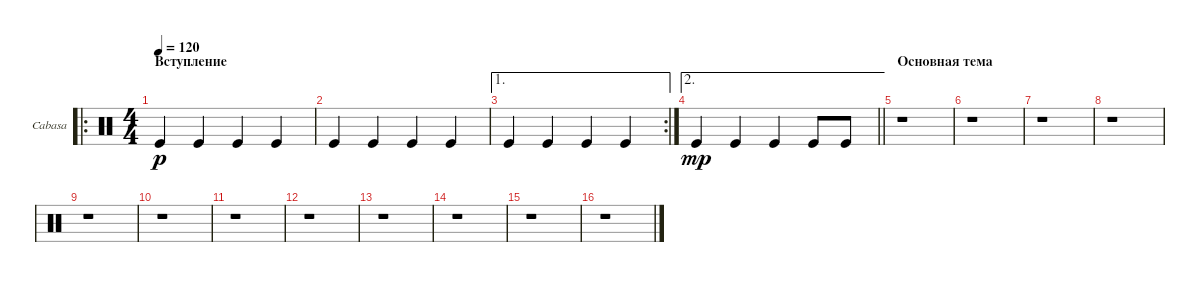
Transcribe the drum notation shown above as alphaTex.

\bracketExtendMode groupsimilarinstruments
\firstSystemTrackNameOrientation horizontal
\otherSystemsTrackNameOrientation horizontal
\track ("Cabasa" "Cabasa") {instrument percussion}
\staff {score}
\articulation defaults
\ro
\ts (4 4)
\beaming (8 2 2 2 2)
\section ("" "Вступление")
\tempo 120
\clef neutral
\ks c "Kick (hit)".4{dy p} "Kick (hit)".4 "Kick (hit)".4 "Kick (hit)".4
|
"Kick (hit)".4 "Kick (hit)".4 "Kick (hit)".4 "Kick (hit)".4 |
\ae 1
\rc 2 "Kick (hit)".4 "Kick (hit)".4 "Kick (hit)".4 "Kick (hit)".4
|
\ae 2
\barLineRight lightlight "Kick (hit)".4{dy mp} "Kick (hit)".4 "Kick (hit)".4 "Kick (hit)".8 "Kick (hit)".8
|
\section ("" "Основная тема")
r.1 |
r.1 |
r.1 |
r.1 |
r.1 |
r.1 |
r.1 |
r.1 |
r.1 |
r.1 |
r.1 |
r.1
